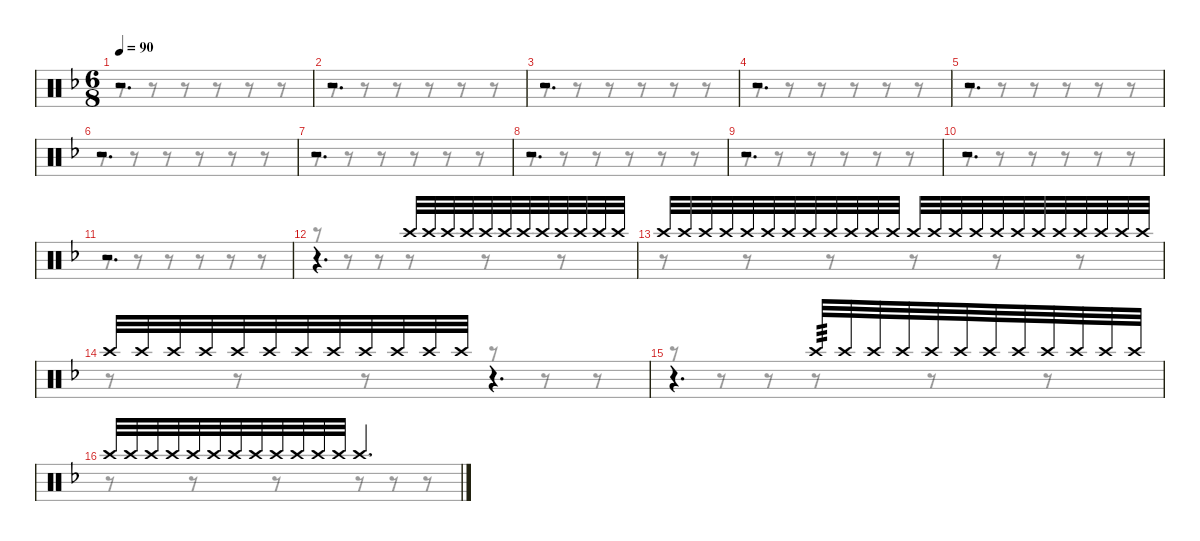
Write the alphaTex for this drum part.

\defaultSystemsLayout 4
\hideDynamics
\bracketExtendMode nobrackets
\singleTrackTrackNamePolicy hidden
\multiTrackTrackNamePolicy hidden
\otherSystemsTrackNameOrientation horizontal
\track ("M. Lopez" "drm.") {instrument percussion}
\staff {score}
\articulation defaults
\voice
\ts (6 8)
\tempo 90
\clef neutral
\ks dminor
r.2{d dy mf beam Up} |
r.2{d beam Up} |
r.2{d beam Up} |
r.2{d beam Up} |
r.2{d beam Up} |
r.2{d beam Up} |
r.2{d beam Up} |
r.2{d beam Up} |
r.2{d beam Up} |
r.2{d beam Up} |
r.2{d beam Up} |
r.4{d beam Up} "Crash high (hit)"{acc forcenatural}.32{dy p beam Up} "Crash high (hit)"{acc forcenatural}.32{beam Up} "Crash high (hit)"{acc forcenatural}.32{beam Up} "Crash high (hit)"{acc forcenatural}.32{beam Up} "Crash high (hit)"{acc forcenatural}.32{beam Up} "Crash high (hit)"{acc forcenatural}.32{beam Up} "Crash high (hit)"{acc forcenatural}.32{beam Up} "Crash high (hit)"{acc forcenatural}.32{beam Up} "Crash high (hit)"{acc forcenatural}.32{beam Up} "Crash high (hit)"{acc forcenatural}.32{beam Up} "Crash high (hit)"{acc forcenatural}.32{beam Up} "Crash high (hit)"{acc forcenatural}.32{beam Up} |
"Crash high (hit)"{acc forcenatural}.32{beam Up} "Crash high (hit)"{acc forcenatural}.32{beam Up} "Crash high (hit)"{acc forcenatural}.32{beam Up} "Crash high (hit)"{acc forcenatural}.32{beam Up} "Crash high (hit)"{acc forcenatural}.32{beam Up} "Crash high (hit)"{acc forcenatural}.32{beam Up} "Crash high (hit)"{acc forcenatural}.32{beam Up} "Crash high (hit)"{acc forcenatural}.32{beam Up} "Crash high (hit)"{acc forcenatural}.32{beam Up} "Crash high (hit)"{acc forcenatural}.32{beam Up} "Crash high (hit)"{acc forcenatural}.32{beam Up} "Crash high (hit)"{acc forcenatural}.32{beam Up} "Crash high (hit)"{acc forcenatural}.32{beam Up} "Crash high (hit)"{acc forcenatural}.32{beam Up} "Crash high (hit)"{acc forcenatural}.32{beam Up} "Crash high (hit)"{acc forcenatural}.32{beam Up} "Crash high (hit)"{acc forcenatural}.32{beam Up} "Crash high (hit)"{acc forcenatural}.32{beam Up} "Crash high (hit)"{acc forcenatural}.32{beam Up} "Crash high (hit)"{acc forcenatural}.32{beam Up} "Crash high (hit)"{acc forcenatural}.32{beam Up} "Crash high (hit)"{acc forcenatural}.32{beam Up} "Crash high (hit)"{acc forcenatural}.32{beam Up} "Crash high (hit)"{acc forcenatural}.32{beam Up} |
"Crash high (hit)"{acc forcenatural}.32{beam Up} "Crash high (hit)"{acc forcenatural}.32{beam Up} "Crash high (hit)"{acc forcenatural}.32{beam Up} "Crash high (hit)"{acc forcenatural}.32{beam Up} "Crash high (hit)"{acc forcenatural}.32{beam Up} "Crash high (hit)"{acc forcenatural}.32{beam Up} "Crash high (hit)"{acc forcenatural}.32{beam Up} "Crash high (hit)"{acc forcenatural}.32{beam Up} "Crash high (hit)"{acc forcenatural}.32{beam Up} "Crash high (hit)"{acc forcenatural}.32{beam Up} "Crash high (hit)"{acc forcenatural}.32{beam Up} "Crash high (hit)"{acc forcenatural}.32{beam Up} r.4{d beam Up} |
r.4{d beam Up} "Crash high (hit)"{acc forcenatural}.32{tp 3 beam Up} "Crash high (hit)"{acc forcenatural}.32{beam Up} "Crash high (hit)"{acc forcenatural}.32{beam Up} "Crash high (hit)"{acc forcenatural}.32{dy mp beam Up} "Crash high (hit)"{acc forcenatural}.32{beam Up} "Crash high (hit)"{acc forcenatural}.32{beam Up} "Crash high (hit)"{acc forcenatural}.32{dy mf beam Up} "Crash high (hit)"{acc forcenatural}.32{beam Up} "Crash high (hit)"{acc forcenatural}.32{beam Up} "Crash high (hit)"{acc forcenatural}.32{dy f beam Up} "Crash high (hit)"{acc forcenatural}.32{beam Up} "Crash high (hit)"{acc forcenatural}.32{beam Up} |
"Crash high (hit)"{acc forcenatural}.32{beam Up} "Crash high (hit)"{acc forcenatural}.32{beam Up} "Crash high (hit)"{acc forcenatural}.32{beam Up} "Crash high (hit)"{acc forcenatural}.32{beam Up} "Crash high (hit)"{acc forcenatural}.32{beam Up} "Crash high (hit)"{acc forcenatural}.32{beam Up} "Crash high (hit)"{acc forcenatural}.32{beam Up} "Crash high (hit)"{acc forcenatural}.32{beam Up} "Crash high (hit)"{acc forcenatural}.32{beam Up} "Crash high (hit)"{acc forcenatural}.32{beam Up} "Crash high (hit)"{acc forcenatural}.32{beam Up} "Crash high (hit)"{acc forcenatural}.32{beam Up} "Crash high (hit)"{acc forcenatural}.4{d dy p beam Up}
\voice
\clef neutral
\ottava regular
\simile none
\ks dminor
r.8{dy mf beam Down} r.8{beam Down} r.8{beam Down} r.8{beam Down} r.8{beam Down} r.8{beam Down} |
r.8{beam Down} r.8{beam Down} r.8{beam Down} r.8{beam Down} r.8{beam Down} r.8{beam Down} |
r.8{beam Down} r.8{beam Down} r.8{beam Down} r.8{beam Down} r.8{beam Down} r.8{beam Down} |
r.8{beam Down} r.8{beam Down} r.8{beam Down} r.8{beam Down} r.8{beam Down} r.8{beam Down} |
r.8{beam Down} r.8{beam Down} r.8{beam Down} r.8{beam Down} r.8{beam Down} r.8{beam Down} |
r.8{beam Down} r.8{beam Down} r.8{beam Down} r.8{beam Down} r.8{beam Down} r.8{beam Down} |
r.8{beam Down} r.8{beam Down} r.8{beam Down} r.8{beam Down} r.8{beam Down} r.8{beam Down} |
r.8{beam Down} r.8{beam Down} r.8{beam Down} r.8{beam Down} r.8{beam Down} r.8{beam Down} |
r.8{beam Down} r.8{beam Down} r.8{beam Down} r.8{beam Down} r.8{beam Down} r.8{beam Down} |
r.8{beam Down} r.8{beam Down} r.8{beam Down} r.8{beam Down} r.8{beam Down} r.8{beam Down} |
r.8{beam Down} r.8{beam Down} r.8{beam Down} r.8{beam Down} r.8{beam Down} r.8{beam Down} |
r.8{beam Down} r.8{beam Down} r.8{beam Down} r.8{beam Down} r.8{beam Down} r.8{beam Down} |
r.8{beam Down} r.8{beam Down} r.8{beam Down} r.8{beam Down} r.8{beam Down} r.8{beam Down} |
r.8{beam Down} r.8{beam Down} r.8{beam Down} r.8{beam Down} r.8{beam Down} r.8{beam Down} |
r.8{beam Down} r.8{beam Down} r.8{beam Down} r.8{beam Down} r.8{beam Down} r.8{beam Down} |
r.8{beam Down} r.8{beam Down} r.8{beam Down} r.8{beam Down} r.8{beam Down} r.8{beam Down}
